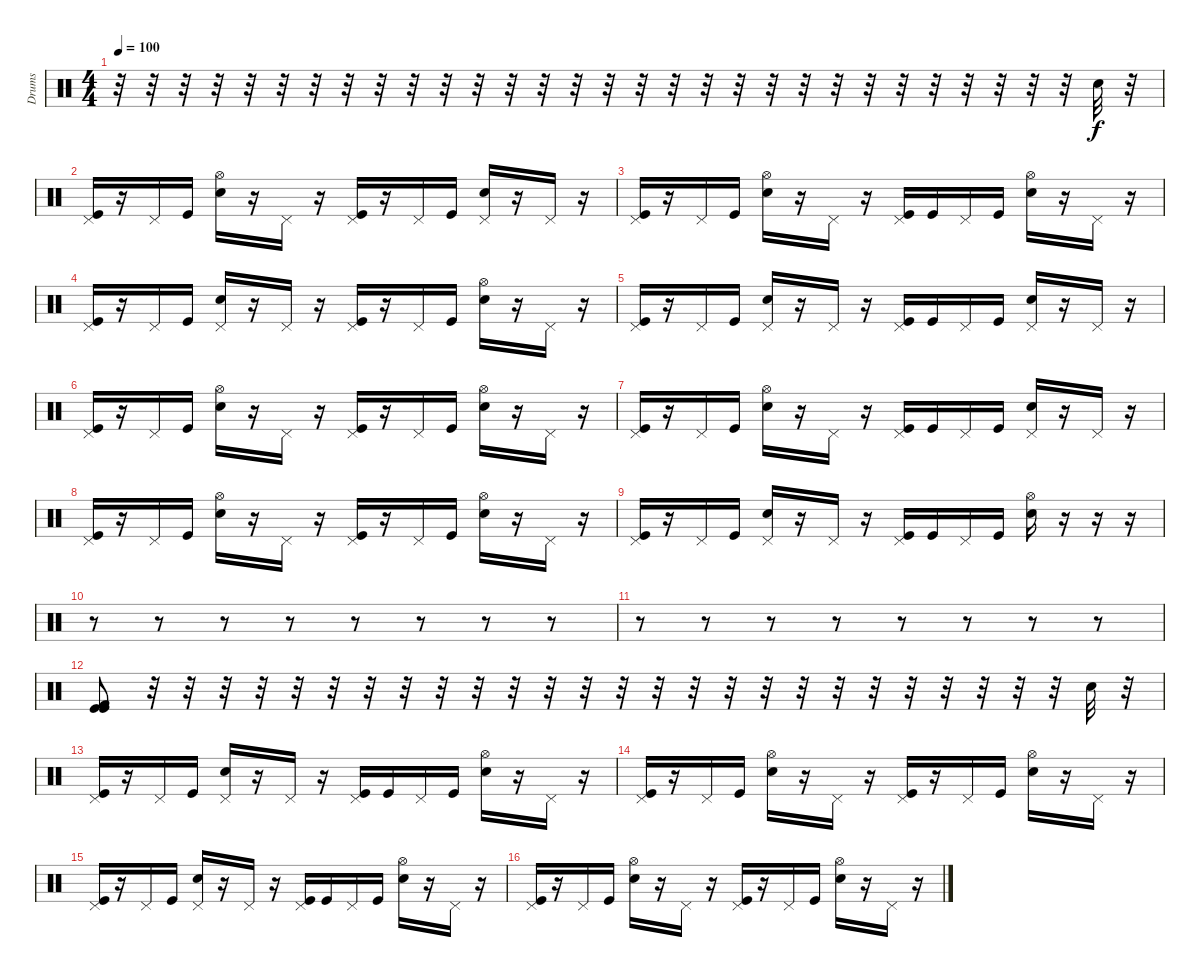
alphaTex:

\track ("Drums" "Drums") {instrument percussion}
\staff {score}
\articulation defaults
\ts (4 4)
\tempo 100
\clef neutral
\ks c
r.32{dy f} r.32 r.32 r.32 r.32 r.32 r.32 r.32 r.32 r.32 r.32 r.32 r.32 r.32 r.32 r.32 r.32 r.32 r.32 r.32 r.32 r.32 r.32 r.32 r.32 r.32 r.32 r.32 r.32 r.32 "Electric Snare (hit)".32 r.32 |
("Pedal Hi-Hat (hit)" "Kick (hit)").16 r.16 "Pedal Hi-Hat (hit)".16 "Kick (hit)".16 ("Hi-Hat (open)" "Electric Snare (hit)").16 r.16 "Pedal Hi-Hat (hit)".16 r.16 ("Pedal Hi-Hat (hit)" "Kick (hit)").16 r.16 "Pedal Hi-Hat (hit)".16 "Kick (hit)".16 ("Pedal Hi-Hat (hit)" "Electric Snare (hit)").16 r.16 "Pedal Hi-Hat (hit)".16 r.16 |
("Pedal Hi-Hat (hit)" "Kick (hit)").16 r.16 "Pedal Hi-Hat (hit)".16 "Kick (hit)".16 ("Hi-Hat (open)" "Electric Snare (hit)").16 r.16 "Pedal Hi-Hat (hit)".16 r.16 ("Pedal Hi-Hat (hit)" "Kick (hit)").16 "Kick (hit)".16 "Pedal Hi-Hat (hit)".16 "Kick (hit)".16 ("Hi-Hat (open)" "Electric Snare (hit)").16 r.16 "Pedal Hi-Hat (hit)".16 r.16 |
("Pedal Hi-Hat (hit)" "Kick (hit)").16 r.16 "Pedal Hi-Hat (hit)".16 "Kick (hit)".16 ("Pedal Hi-Hat (hit)" "Electric Snare (hit)").16 r.16 "Pedal Hi-Hat (hit)".16 r.16 ("Pedal Hi-Hat (hit)" "Kick (hit)").16 r.16 "Pedal Hi-Hat (hit)".16 "Kick (hit)".16 ("Hi-Hat (open)" "Electric Snare (hit)").16 r.16 "Pedal Hi-Hat (hit)".16 r.16 |
("Pedal Hi-Hat (hit)" "Kick (hit)").16 r.16 "Pedal Hi-Hat (hit)".16 "Kick (hit)".16 ("Pedal Hi-Hat (hit)" "Electric Snare (hit)").16 r.16 "Pedal Hi-Hat (hit)".16 r.16 ("Pedal Hi-Hat (hit)" "Kick (hit)").16 "Kick (hit)".16 "Pedal Hi-Hat (hit)".16 "Kick (hit)".16 ("Pedal Hi-Hat (hit)" "Electric Snare (hit)").16 r.16 "Pedal Hi-Hat (hit)".16 r.16 |
("Pedal Hi-Hat (hit)" "Kick (hit)").16 r.16 "Pedal Hi-Hat (hit)".16 "Kick (hit)".16 ("Hi-Hat (open)" "Electric Snare (hit)").16 r.16 "Pedal Hi-Hat (hit)".16 r.16 ("Pedal Hi-Hat (hit)" "Kick (hit)").16 r.16 "Pedal Hi-Hat (hit)".16 "Kick (hit)".16 ("Hi-Hat (open)" "Electric Snare (hit)").16 r.16 "Pedal Hi-Hat (hit)".16 r.16 |
("Pedal Hi-Hat (hit)" "Kick (hit)").16 r.16 "Pedal Hi-Hat (hit)".16 "Kick (hit)".16 ("Hi-Hat (open)" "Electric Snare (hit)").16 r.16 "Pedal Hi-Hat (hit)".16 r.16 ("Pedal Hi-Hat (hit)" "Kick (hit)").16 "Kick (hit)".16 "Pedal Hi-Hat (hit)".16 "Kick (hit)".16 ("Pedal Hi-Hat (hit)" "Electric Snare (hit)").16 r.16 "Pedal Hi-Hat (hit)".16 r.16 |
("Pedal Hi-Hat (hit)" "Kick (hit)").16 r.16 "Pedal Hi-Hat (hit)".16 "Kick (hit)".16 ("Hi-Hat (open)" "Electric Snare (hit)").16 r.16 "Pedal Hi-Hat (hit)".16 r.16 ("Pedal Hi-Hat (hit)" "Kick (hit)").16 r.16 "Pedal Hi-Hat (hit)".16 "Kick (hit)".16 ("Hi-Hat (open)" "Electric Snare (hit)").16 r.16 "Pedal Hi-Hat (hit)".16 r.16 |
("Pedal Hi-Hat (hit)" "Kick (hit)").16 r.16 "Pedal Hi-Hat (hit)".16 "Kick (hit)".16 ("Pedal Hi-Hat (hit)" "Electric Snare (hit)").16 r.16 "Pedal Hi-Hat (hit)".16 r.16 ("Pedal Hi-Hat (hit)" "Kick (hit)").16 "Kick (hit)".16 "Pedal Hi-Hat (hit)".16 "Kick (hit)".16 ("Hi-Hat (open)" "Electric Snare (hit)").16 r.16 r.16 r.16 |
r.8 r.8 r.8 r.8 r.8 r.8 r.8 r.8 |
r.8 r.8 r.8 r.8 r.8 r.8 r.8 r.8 |
("Kick (hit)" "Kick (hit) 2" "Kick (hit)").8 r.32 r.32 r.32 r.32 r.32 r.32 r.32 r.32 r.32 r.32 r.32 r.32 r.32 r.32 r.32 r.32 r.32 r.32 r.32 r.32 r.32 r.32 r.32 r.32 r.32 r.32 "Electric Snare (hit)".32 r.32 |
("Pedal Hi-Hat (hit)" "Kick (hit)").16 r.16 "Pedal Hi-Hat (hit)".16 "Kick (hit)".16 ("Pedal Hi-Hat (hit)" "Electric Snare (hit)").16 r.16 "Pedal Hi-Hat (hit)".16 r.16 ("Pedal Hi-Hat (hit)" "Kick (hit)").16 "Kick (hit)".16 "Pedal Hi-Hat (hit)".16 "Kick (hit)".16 ("Hi-Hat (open)" "Electric Snare (hit)").16 r.16 "Pedal Hi-Hat (hit)".16 r.16 |
("Pedal Hi-Hat (hit)" "Kick (hit)").16 r.16 "Pedal Hi-Hat (hit)".16 "Kick (hit)".16 ("Hi-Hat (open)" "Electric Snare (hit)").16 r.16 "Pedal Hi-Hat (hit)".16 r.16 ("Pedal Hi-Hat (hit)" "Kick (hit)").16 r.16 "Pedal Hi-Hat (hit)".16 "Kick (hit)".16 ("Hi-Hat (open)" "Electric Snare (hit)").16 r.16 "Pedal Hi-Hat (hit)".16 r.16 |
("Pedal Hi-Hat (hit)" "Kick (hit)").16 r.16 "Pedal Hi-Hat (hit)".16 "Kick (hit)".16 ("Pedal Hi-Hat (hit)" "Electric Snare (hit)").16 r.16 "Pedal Hi-Hat (hit)".16 r.16 ("Pedal Hi-Hat (hit)" "Kick (hit)").16 "Kick (hit)".16 "Pedal Hi-Hat (hit)".16 "Kick (hit)".16 ("Hi-Hat (open)" "Electric Snare (hit)").16 r.16 "Pedal Hi-Hat (hit)".16 r.16 |
("Pedal Hi-Hat (hit)" "Kick (hit)").16 r.16 "Pedal Hi-Hat (hit)".16 "Kick (hit)".16 ("Hi-Hat (open)" "Electric Snare (hit)").16 r.16 "Pedal Hi-Hat (hit)".16 r.16 ("Pedal Hi-Hat (hit)" "Kick (hit)").16 r.16 "Pedal Hi-Hat (hit)".16 "Kick (hit)".16 ("Hi-Hat (open)" "Electric Snare (hit)").16 r.16 "Pedal Hi-Hat (hit)".16 r.16
